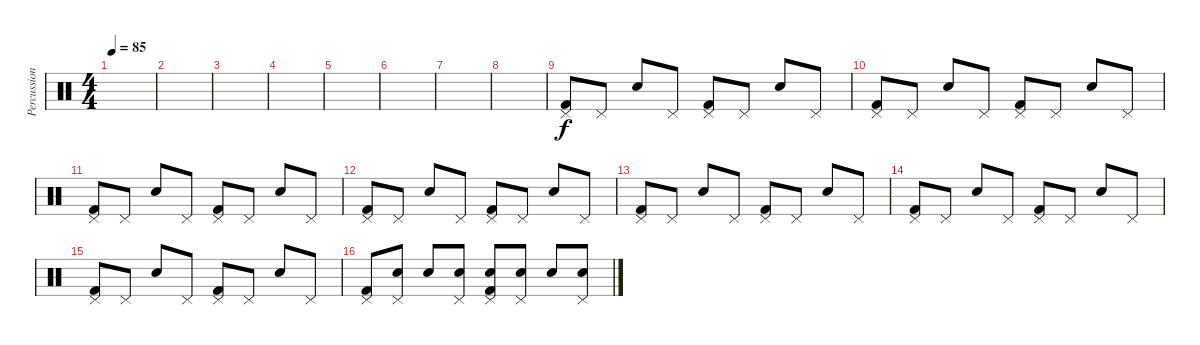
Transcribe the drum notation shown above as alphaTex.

\track ("Percussion" "Percussion") {instrument percussion}
\staff {score}
\articulation defaults
\ts (4 4)
\tempo 85
\clef neutral
\ks c
|
|
|
|
|
|
|
|
("Pedal Hi-Hat (hit)" "Kick (hit) 2").8 "Pedal Hi-Hat (hit)".8 "Snare (hit) 2".8 "Pedal Hi-Hat (hit)".8 ("Pedal Hi-Hat (hit)" "Kick (hit) 2").8 "Pedal Hi-Hat (hit)".8 "Snare (hit) 2".8 "Pedal Hi-Hat (hit)".8 |
("Pedal Hi-Hat (hit)" "Kick (hit) 2").8 "Pedal Hi-Hat (hit)".8 "Snare (hit) 2".8 "Pedal Hi-Hat (hit)".8 ("Pedal Hi-Hat (hit)" "Kick (hit) 2").8 "Pedal Hi-Hat (hit)".8 "Snare (hit) 2".8 "Pedal Hi-Hat (hit)".8 |
("Pedal Hi-Hat (hit)" "Kick (hit) 2").8 "Pedal Hi-Hat (hit)".8 "Snare (hit) 2".8 "Pedal Hi-Hat (hit)".8 ("Pedal Hi-Hat (hit)" "Kick (hit) 2").8 "Pedal Hi-Hat (hit)".8 "Snare (hit) 2".8 "Pedal Hi-Hat (hit)".8 |
("Pedal Hi-Hat (hit)" "Kick (hit) 2").8 "Pedal Hi-Hat (hit)".8 "Snare (hit) 2".8 "Pedal Hi-Hat (hit)".8 ("Pedal Hi-Hat (hit)" "Kick (hit) 2").8 "Pedal Hi-Hat (hit)".8 "Snare (hit) 2".8 "Pedal Hi-Hat (hit)".8 |
("Pedal Hi-Hat (hit)" "Kick (hit) 2").8 "Pedal Hi-Hat (hit)".8 "Snare (hit) 2".8 "Pedal Hi-Hat (hit)".8 ("Pedal Hi-Hat (hit)" "Kick (hit) 2").8 "Pedal Hi-Hat (hit)".8 "Snare (hit) 2".8 "Pedal Hi-Hat (hit)".8 |
("Pedal Hi-Hat (hit)" "Kick (hit) 2").8 "Pedal Hi-Hat (hit)".8 "Snare (hit) 2".8 "Pedal Hi-Hat (hit)".8 ("Pedal Hi-Hat (hit)" "Kick (hit) 2").8 "Pedal Hi-Hat (hit)".8 "Snare (hit) 2".8 "Pedal Hi-Hat (hit)".8 |
("Pedal Hi-Hat (hit)" "Kick (hit) 2").8 "Pedal Hi-Hat (hit)".8 "Snare (hit) 2".8 "Pedal Hi-Hat (hit)".8 ("Pedal Hi-Hat (hit)" "Kick (hit) 2").8 "Pedal Hi-Hat (hit)".8 "Snare (hit) 2".8 "Pedal Hi-Hat (hit)".8 |
("Pedal Hi-Hat (hit)" "Kick (hit) 2").8 ("Snare (hit) 2" "Pedal Hi-Hat (hit)").8 "Snare (hit) 2".8 ("Snare (hit) 2" "Pedal Hi-Hat (hit)").8 ("Snare (hit) 2" "Pedal Hi-Hat (hit)" "Kick (hit) 2").8 ("Snare (hit) 2" "Pedal Hi-Hat (hit)").8 "Snare (hit) 2".8 ("Snare (hit) 2" "Pedal Hi-Hat (hit)").8
